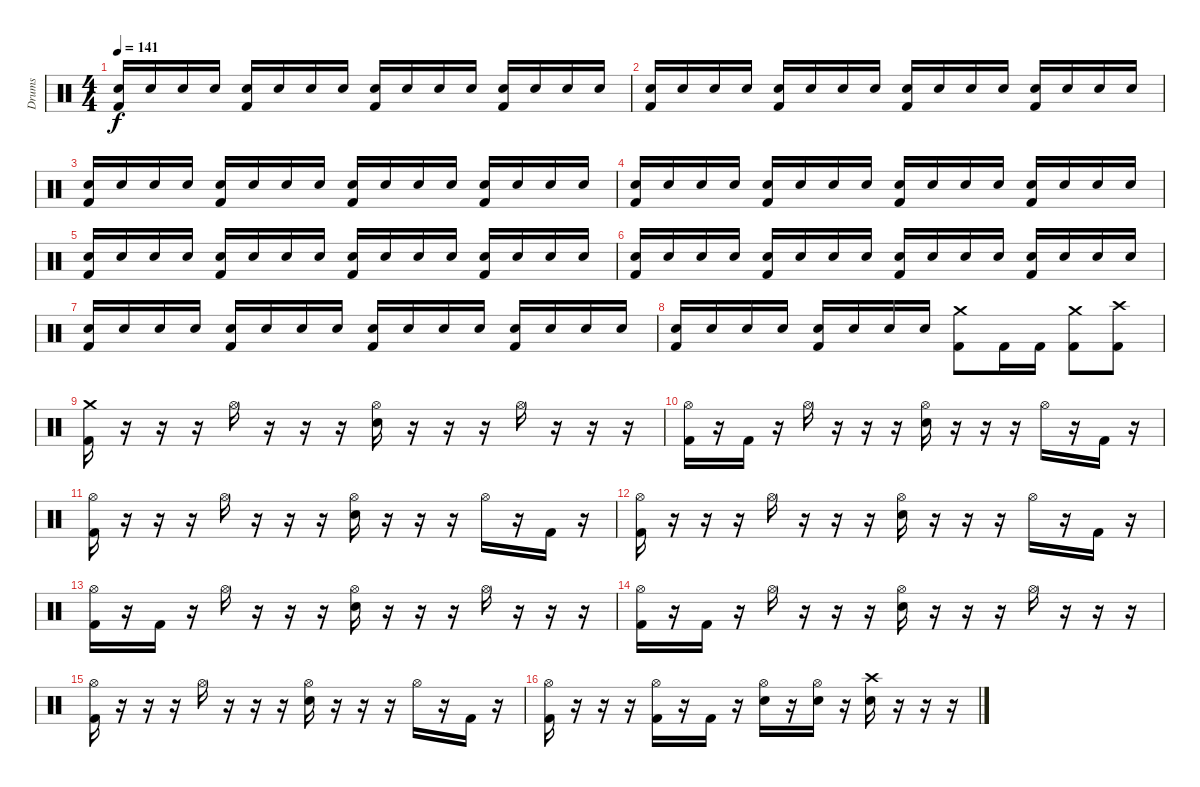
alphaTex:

\track ("Drums" "Drums") {instrument percussion}
\staff {score}
\articulation defaults
\ts (4 4)
\section ("" "")
\tempo 141
\clef neutral
\ks c
("Electric Snare (hit)" "Kick (hit) 2").16{dy f} "Electric Snare (hit)".16 "Electric Snare (hit)".16 "Electric Snare (hit)".16 ("Electric Snare (hit)" "Kick (hit) 2").16 "Electric Snare (hit)".16 "Electric Snare (hit)".16 "Electric Snare (hit)".16 ("Electric Snare (hit)" "Kick (hit) 2").16 "Electric Snare (hit)".16 "Electric Snare (hit)".16 "Electric Snare (hit)".16 ("Electric Snare (hit)" "Kick (hit) 2").16 "Electric Snare (hit)".16 "Electric Snare (hit)".16 "Electric Snare (hit)".16 |
("Electric Snare (hit)" "Kick (hit) 2").16 "Electric Snare (hit)".16 "Electric Snare (hit)".16 "Electric Snare (hit)".16 ("Electric Snare (hit)" "Kick (hit) 2").16 "Electric Snare (hit)".16 "Electric Snare (hit)".16 "Electric Snare (hit)".16 ("Electric Snare (hit)" "Kick (hit) 2").16 "Electric Snare (hit)".16 "Electric Snare (hit)".16 "Electric Snare (hit)".16 ("Electric Snare (hit)" "Kick (hit) 2").16 "Electric Snare (hit)".16 "Electric Snare (hit)".16 "Electric Snare (hit)".16 |
("Electric Snare (hit)" "Kick (hit) 2").16 "Electric Snare (hit)".16 "Electric Snare (hit)".16 "Electric Snare (hit)".16 ("Electric Snare (hit)" "Kick (hit) 2").16 "Electric Snare (hit)".16 "Electric Snare (hit)".16 "Electric Snare (hit)".16 ("Electric Snare (hit)" "Kick (hit) 2").16 "Electric Snare (hit)".16 "Electric Snare (hit)".16 "Electric Snare (hit)".16 ("Electric Snare (hit)" "Kick (hit) 2").16 "Electric Snare (hit)".16 "Electric Snare (hit)".16 "Electric Snare (hit)".16 |
("Electric Snare (hit)" "Kick (hit) 2").16 "Electric Snare (hit)".16 "Electric Snare (hit)".16 "Electric Snare (hit)".16 ("Electric Snare (hit)" "Kick (hit) 2").16 "Electric Snare (hit)".16 "Electric Snare (hit)".16 "Electric Snare (hit)".16 ("Electric Snare (hit)" "Kick (hit) 2").16 "Electric Snare (hit)".16 "Electric Snare (hit)".16 "Electric Snare (hit)".16 ("Electric Snare (hit)" "Kick (hit) 2").16 "Electric Snare (hit)".16 "Electric Snare (hit)".16 "Electric Snare (hit)".16 |
("Electric Snare (hit)" "Kick (hit) 2").16 "Electric Snare (hit)".16 "Electric Snare (hit)".16 "Electric Snare (hit)".16 ("Electric Snare (hit)" "Kick (hit) 2").16 "Electric Snare (hit)".16 "Electric Snare (hit)".16 "Electric Snare (hit)".16 ("Electric Snare (hit)" "Kick (hit) 2").16 "Electric Snare (hit)".16 "Electric Snare (hit)".16 "Electric Snare (hit)".16 ("Electric Snare (hit)" "Kick (hit) 2").16 "Electric Snare (hit)".16 "Electric Snare (hit)".16 "Electric Snare (hit)".16 |
("Electric Snare (hit)" "Kick (hit) 2").16 "Electric Snare (hit)".16 "Electric Snare (hit)".16 "Electric Snare (hit)".16 ("Electric Snare (hit)" "Kick (hit) 2").16 "Electric Snare (hit)".16 "Electric Snare (hit)".16 "Electric Snare (hit)".16 ("Electric Snare (hit)" "Kick (hit) 2").16 "Electric Snare (hit)".16 "Electric Snare (hit)".16 "Electric Snare (hit)".16 ("Electric Snare (hit)" "Kick (hit) 2").16 "Electric Snare (hit)".16 "Electric Snare (hit)".16 "Electric Snare (hit)".16 |
("Electric Snare (hit)" "Kick (hit) 2").16 "Electric Snare (hit)".16 "Electric Snare (hit)".16 "Electric Snare (hit)".16 ("Electric Snare (hit)" "Kick (hit) 2").16 "Electric Snare (hit)".16 "Electric Snare (hit)".16 "Electric Snare (hit)".16 ("Electric Snare (hit)" "Kick (hit) 2").16 "Electric Snare (hit)".16 "Electric Snare (hit)".16 "Electric Snare (hit)".16 ("Electric Snare (hit)" "Kick (hit) 2").16 "Electric Snare (hit)".16 "Electric Snare (hit)".16 "Electric Snare (hit)".16 |
("Electric Snare (hit)" "Kick (hit) 2").16 "Electric Snare (hit)".16 "Electric Snare (hit)".16 "Electric Snare (hit)".16 ("Electric Snare (hit)" "Kick (hit) 2").16 "Electric Snare (hit)".16 "Electric Snare (hit)".16 "Electric Snare (hit)".16 ("Crash medium (hit)" "Kick (hit) 2").8 "Kick (hit) 2".16 "Kick (hit) 2".16 ("Crash medium (hit)" "Kick (hit) 2").8 ("Crash high (hit)" "Kick (hit) 2").8 |
\section ("" "")
("Crash medium (hit)" "Kick (hit) 2").16 r.16 r.16 r.16 "Hi-Hat (open)".16 r.16 r.16 r.16 ("Hi-Hat (open)" "Electric Snare (hit)").16 r.16 r.16 r.16 "Hi-Hat (open)".16 r.16 r.16 r.16 |
("Hi-Hat (open)" "Kick (hit) 2").16 r.16 "Kick (hit) 2".16 r.16 "Hi-Hat (open)".16 r.16 r.16 r.16 ("Hi-Hat (open)" "Electric Snare (hit)").16 r.16 r.16 r.16 "Hi-Hat (open)".16 r.16 "Kick (hit) 2".16 r.16 |
("Hi-Hat (open)" "Kick (hit) 2").16 r.16 r.16 r.16 "Hi-Hat (open)".16 r.16 r.16 r.16 ("Hi-Hat (open)" "Electric Snare (hit)").16 r.16 r.16 r.16 "Hi-Hat (open)".16 r.16 "Kick (hit) 2".16 r.16 |
("Hi-Hat (open)" "Kick (hit) 2").16 r.16 r.16 r.16 "Hi-Hat (open)".16 r.16 r.16 r.16 ("Hi-Hat (open)" "Electric Snare (hit)").16 r.16 r.16 r.16 "Hi-Hat (open)".16 r.16 "Kick (hit) 2".16 r.16 |
("Hi-Hat (open)" "Kick (hit) 2").16 r.16 "Kick (hit) 2".16 r.16 "Hi-Hat (open)".16 r.16 r.16 r.16 ("Hi-Hat (open)" "Electric Snare (hit)").16 r.16 r.16 r.16 "Hi-Hat (open)".16 r.16 r.16 r.16 |
("Hi-Hat (open)" "Kick (hit) 2").16 r.16 "Kick (hit) 2".16 r.16 "Hi-Hat (open)".16 r.16 r.16 r.16 ("Hi-Hat (open)" "Electric Snare (hit)").16 r.16 r.16 r.16 "Hi-Hat (open)".16 r.16 r.16 r.16 |
("Hi-Hat (open)" "Kick (hit) 2").16 r.16 r.16 r.16 "Hi-Hat (open)".16 r.16 r.16 r.16 ("Hi-Hat (open)" "Electric Snare (hit)").16 r.16 r.16 r.16 "Hi-Hat (open)".16 r.16 "Kick (hit) 2".16 r.16 |
("Hi-Hat (open)" "Kick (hit) 2").16 r.16 r.16 r.16 ("Hi-Hat (open)" "Kick (hit) 2").16 r.16 "Kick (hit) 2".16 r.16 ("Hi-Hat (open)" "Electric Snare (hit)").16 r.16 ("Hi-Hat (open)" "Electric Snare (hit)").16 r.16 ("Crash high (hit)" "Electric Snare (hit)").16 r.16 r.16 r.16
